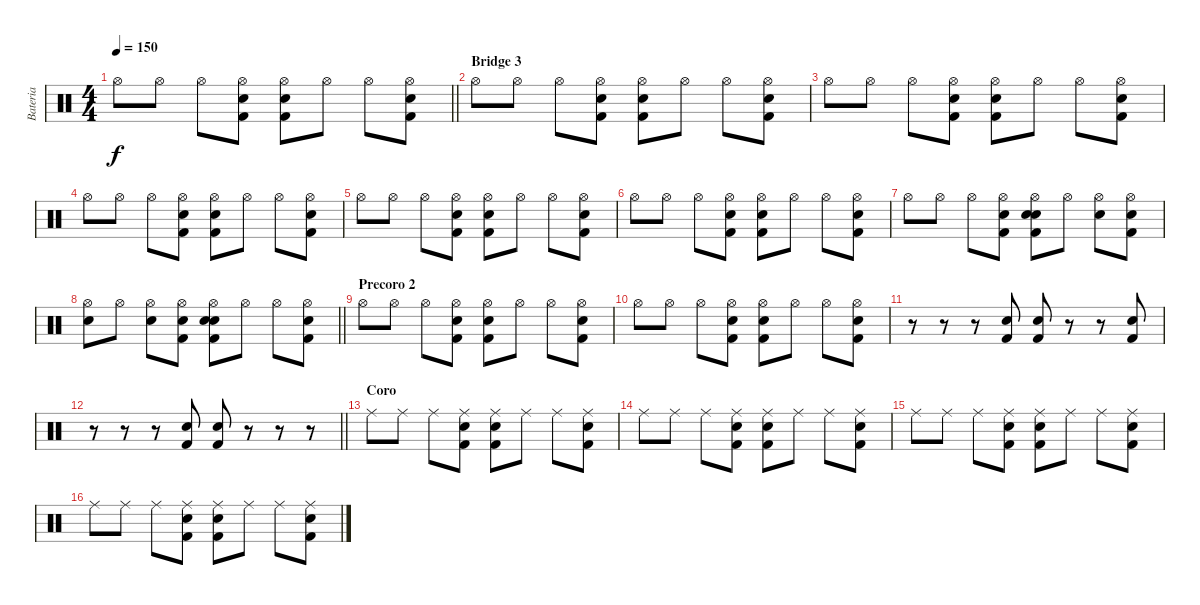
\track ("Bateria" "Bateria") {instrument percussion}
\staff {score}
\articulation defaults
\ts (4 4)
\tempo 150
\clef neutral
\barLineRight lightlight
\ks c "Hi-Hat (open)".8{dy f} "Hi-Hat (open)".8 "Hi-Hat (open)".8
("Hi-Hat (open)" "Electric Snare (hit)" "Kick (hit) 2").8 ("Hi-Hat (open)" "Electric Snare (hit)" "Kick (hit) 2").8 "Hi-Hat (open)".8 "Hi-Hat (open)".8 ("Hi-Hat (open)" "Electric Snare (hit)" "Kick (hit) 2").8 |
\section ("" "Bridge 3")
"Hi-Hat (open)".8 "Hi-Hat (open)".8 "Hi-Hat (open)".8 ("Hi-Hat (open)" "Electric Snare (hit)" "Kick (hit) 2").8 ("Hi-Hat (open)" "Electric Snare (hit)" "Kick (hit) 2").8 "Hi-Hat (open)".8 "Hi-Hat (open)".8 ("Hi-Hat (open)" "Electric Snare (hit)" "Kick (hit) 2").8 |
"Hi-Hat (open)".8 "Hi-Hat (open)".8 "Hi-Hat (open)".8 ("Hi-Hat (open)" "Electric Snare (hit)" "Kick (hit) 2").8 ("Hi-Hat (open)" "Electric Snare (hit)" "Kick (hit) 2").8 "Hi-Hat (open)".8 "Hi-Hat (open)".8 ("Hi-Hat (open)" "Electric Snare (hit)" "Kick (hit) 2").8 |
"Hi-Hat (open)".8 "Hi-Hat (open)".8 "Hi-Hat (open)".8 ("Hi-Hat (open)" "Electric Snare (hit)" "Kick (hit) 2").8 ("Hi-Hat (open)" "Electric Snare (hit)" "Kick (hit) 2").8 "Hi-Hat (open)".8 "Hi-Hat (open)".8 ("Hi-Hat (open)" "Electric Snare (hit)" "Kick (hit) 2").8 |
"Hi-Hat (open)".8 "Hi-Hat (open)".8 "Hi-Hat (open)".8 ("Hi-Hat (open)" "Electric Snare (hit)" "Kick (hit) 2").8 ("Hi-Hat (open)" "Electric Snare (hit)" "Kick (hit) 2").8 "Hi-Hat (open)".8 "Hi-Hat (open)".8 ("Hi-Hat (open)" "Electric Snare (hit)" "Kick (hit) 2").8 |
"Hi-Hat (open)".8 "Hi-Hat (open)".8 "Hi-Hat (open)".8 ("Hi-Hat (open)" "Electric Snare (hit)" "Kick (hit) 2").8 ("Hi-Hat (open)" "Electric Snare (hit)" "Kick (hit) 2").8 "Hi-Hat (open)".8 "Hi-Hat (open)".8 ("Hi-Hat (open)" "Electric Snare (hit)" "Kick (hit) 2").8 |
"Hi-Hat (open)".8 "Hi-Hat (open)".8 "Hi-Hat (open)".8 ("Hi-Hat (open)" "Electric Snare (hit)" "Kick (hit) 2").8 ("Hand Clap (hit)" "Hi-Hat (open)" "Electric Snare (hit)" "Kick (hit) 2").8 "Hi-Hat (open)".8 ("Hand Clap (hit)" "Hi-Hat (open)").8 ("Hi-Hat (open)" "Electric Snare (hit)" "Kick (hit) 2").8 |
\barLineRight lightlight
("Hand Clap (hit)" "Hi-Hat (open)").8 "Hi-Hat (open)".8 ("Hand Clap (hit)" "Hi-Hat (open)").8 ("Hi-Hat (open)" "Electric Snare (hit)" "Kick (hit) 2").8 ("Hand Clap (hit)" "Hi-Hat (open)" "Electric Snare (hit)" "Kick (hit) 2").8 "Hi-Hat (open)".8 "Hi-Hat (open)".8 ("Hi-Hat (open)" "Electric Snare (hit)" "Kick (hit) 2").8 |
\section ("" "Precoro 2")
"Hi-Hat (open)".8 "Hi-Hat (open)".8 "Hi-Hat (open)".8 ("Hi-Hat (open)" "Electric Snare (hit)" "Kick (hit) 2").8 ("Hi-Hat (open)" "Electric Snare (hit)" "Kick (hit) 2").8 "Hi-Hat (open)".8 "Hi-Hat (open)".8 ("Hi-Hat (open)" "Electric Snare (hit)" "Kick (hit) 2").8 |
"Hi-Hat (open)".8 "Hi-Hat (open)".8 "Hi-Hat (open)".8 ("Hi-Hat (open)" "Electric Snare (hit)" "Kick (hit) 2").8 ("Hi-Hat (open)" "Electric Snare (hit)" "Kick (hit) 2").8 "Hi-Hat (open)".8 "Hi-Hat (open)".8 ("Hi-Hat (open)" "Electric Snare (hit)" "Kick (hit) 2").8 |
r.8 r.8 r.8 ("Electric Snare (hit)" "Kick (hit) 2").8 ("Electric Snare (hit)" "Kick (hit) 2").8 r.8 r.8 ("Electric Snare (hit)" "Kick (hit) 2").8 |
\barLineRight lightlight
r.8 r.8 r.8 ("Electric Snare (hit)" "Kick (hit) 2").8 ("Electric Snare (hit)" "Kick (hit) 2").8 r.8 r.8 r.8 |
\section ("" "Coro")
"Ride (middle)".8 "Ride (middle)".8 "Ride (middle)".8 ("Ride (middle)" "Electric Snare (hit)" "Kick (hit) 2").8 ("Ride (middle)" "Electric Snare (hit)" "Kick (hit) 2").8 "Ride (middle)".8 "Ride (middle)".8 ("Ride (middle)" "Electric Snare (hit)" "Kick (hit) 2").8 |
"Ride (middle)".8 "Ride (middle)".8 "Ride (middle)".8 ("Ride (middle)" "Electric Snare (hit)" "Kick (hit) 2").8 ("Ride (middle)" "Electric Snare (hit)" "Kick (hit) 2").8 "Ride (middle)".8 "Ride (middle)".8 ("Ride (middle)" "Electric Snare (hit)" "Kick (hit) 2").8 |
"Ride (middle)".8 "Ride (middle)".8 "Ride (middle)".8 ("Ride (middle)" "Electric Snare (hit)" "Kick (hit) 2").8 ("Ride (middle)" "Electric Snare (hit)" "Kick (hit) 2").8 "Ride (middle)".8 "Ride (middle)".8 ("Ride (middle)" "Electric Snare (hit)" "Kick (hit) 2").8 |
"Ride (middle)".8 "Ride (middle)".8 "Ride (middle)".8 ("Ride (middle)" "Electric Snare (hit)" "Kick (hit) 2").8 ("Ride (middle)" "Electric Snare (hit)" "Kick (hit) 2").8 "Ride (middle)".8 "Ride (middle)".8 ("Ride (middle)" "Electric Snare (hit)" "Kick (hit) 2").8
